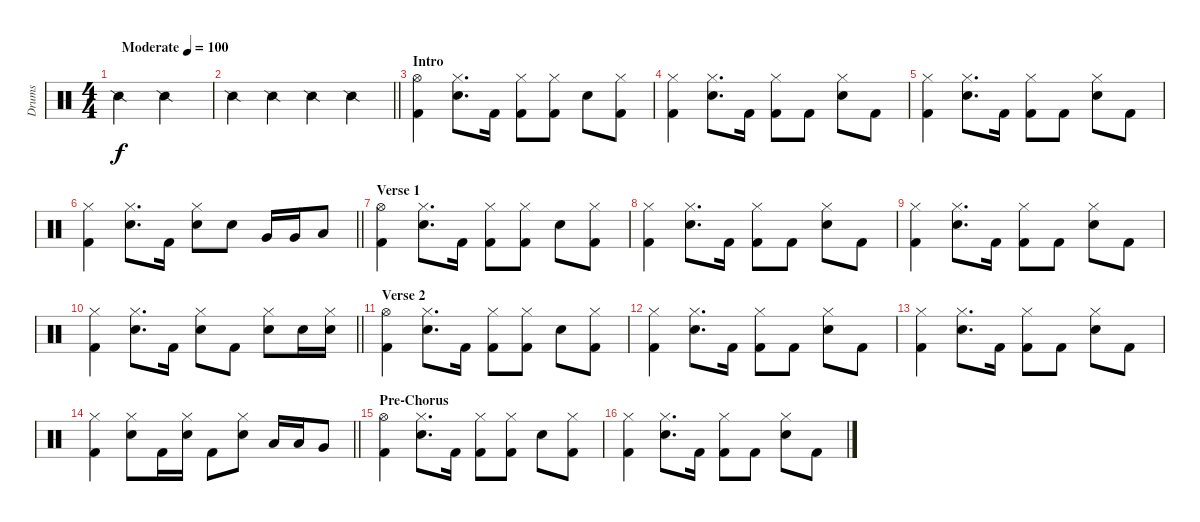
\track ("Drums" "Drums") {instrument percussion}
\staff {score}
\articulation defaults
\ts (4 4)
\tempo (100 "Moderate")
\clef neutral
\ks c "Snare (side stick) 2".2{dy f} "Snare (side stick) 2".2
|
\barLineRight lightlight "Snare (side stick) 2".4 "Snare (side stick) 2".4 "Snare (side stick) 2".4 "Snare (side stick) 2".4
|
\section ("" "Intro")
("Kick (hit) 2" "Hi-Hat (open)").4 ("Electric Snare (hit)" "Hi-Hat (closed)").8{d} "Kick (hit) 2".16 ("Kick (hit) 2" "Hi-Hat (closed)").8 ("Kick (hit) 2" "Hi-Hat (closed)").8 "Electric Snare (hit)".8 ("Kick (hit) 2" "Hi-Hat (closed)").8 |
("Kick (hit) 2" "Hi-Hat (closed)").4 ("Electric Snare (hit)" "Hi-Hat (closed)").8{d} "Kick (hit) 2".16 ("Kick (hit) 2" "Hi-Hat (closed)").8 "Kick (hit) 2".8 ("Electric Snare (hit)" "Hi-Hat (closed)").8 "Kick (hit) 2".8 |
("Kick (hit) 2" "Hi-Hat (closed)").4 ("Electric Snare (hit)" "Hi-Hat (closed)").8{d} "Kick (hit) 2".16 ("Kick (hit) 2" "Hi-Hat (closed)").8 "Kick (hit) 2".8 ("Electric Snare (hit)" "Hi-Hat (closed)").8 "Kick (hit) 2".8 |
\barLineRight lightlight
("Kick (hit) 2" "Hi-Hat (closed)").4 ("Electric Snare (hit)" "Hi-Hat (closed)").8{d} "Kick (hit) 2".16 ("Electric Snare (hit)" "Hi-Hat (closed)").8 "Electric Snare (hit)".8 "Very Low Tom (hit)".16 "Very Low Tom (hit)".16 "Low Floor Tom (hit)".8 |
\section ("" "Verse 1")
("Kick (hit) 2" "Hi-Hat (open)").4 ("Electric Snare (hit)" "Hi-Hat (closed)").8{d} "Kick (hit) 2".16 ("Kick (hit) 2" "Hi-Hat (closed)").8 ("Kick (hit) 2" "Hi-Hat (closed)").8 "Electric Snare (hit)".8 ("Kick (hit) 2" "Hi-Hat (closed)").8 |
("Kick (hit) 2" "Hi-Hat (closed)").4 ("Electric Snare (hit)" "Hi-Hat (closed)").8{d} "Kick (hit) 2".16 ("Kick (hit) 2" "Hi-Hat (closed)").8 "Kick (hit) 2".8 ("Electric Snare (hit)" "Hi-Hat (closed)").8 "Kick (hit) 2".8 |
("Kick (hit) 2" "Hi-Hat (closed)").4 ("Electric Snare (hit)" "Hi-Hat (closed)").8{d} "Kick (hit) 2".16 ("Kick (hit) 2" "Hi-Hat (closed)").8 "Kick (hit) 2".8 ("Electric Snare (hit)" "Hi-Hat (closed)").8 "Kick (hit) 2".8 |
\barLineRight lightlight
("Kick (hit) 2" "Hi-Hat (closed)").4 ("Electric Snare (hit)" "Hi-Hat (closed)").8{d} "Kick (hit) 2".16 ("Electric Snare (hit)" "Hi-Hat (closed)").8 "Kick (hit) 2".8 ("Electric Snare (hit)" "Hi-Hat (closed)").8 "Electric Snare (hit)".16 ("Electric Snare (hit)" "Hi-Hat (closed)").16 |
\section ("" "Verse 2")
("Kick (hit) 2" "Hi-Hat (open)").4 ("Electric Snare (hit)" "Hi-Hat (closed)").8{d} "Kick (hit) 2".16 ("Kick (hit) 2" "Hi-Hat (closed)").8 ("Kick (hit) 2" "Hi-Hat (closed)").8 "Electric Snare (hit)".8 ("Kick (hit) 2" "Hi-Hat (closed)").8 |
("Kick (hit) 2" "Hi-Hat (closed)").4 ("Electric Snare (hit)" "Hi-Hat (closed)").8{d} "Kick (hit) 2".16 ("Kick (hit) 2" "Hi-Hat (closed)").8 "Kick (hit) 2".8 ("Electric Snare (hit)" "Hi-Hat (closed)").8 "Kick (hit) 2".8 |
("Kick (hit) 2" "Hi-Hat (closed)").4 ("Electric Snare (hit)" "Hi-Hat (closed)").8{d} "Kick (hit) 2".16 ("Kick (hit) 2" "Hi-Hat (closed)").8 "Kick (hit) 2".8 ("Electric Snare (hit)" "Hi-Hat (closed)").8 "Kick (hit) 2".8 |
\barLineRight lightlight
("Kick (hit) 2" "Hi-Hat (closed)").4 ("Electric Snare (hit)" "Hi-Hat (closed)").8 "Kick (hit) 2".16 ("Electric Snare (hit)" "Hi-Hat (closed)").16 "Kick (hit) 2".8 ("Electric Snare (hit)" "Hi-Hat (closed)").8 "Low Tom (hit)".16 "Low Tom (hit)".16 "Very Low Tom (hit)".8 |
\section ("" "Pre-Chorus")
("Kick (hit) 2" "Hi-Hat (open)").4 ("Electric Snare (hit)" "Hi-Hat (closed)").8{d} "Kick (hit) 2".16 ("Kick (hit) 2" "Hi-Hat (closed)").8 ("Kick (hit) 2" "Hi-Hat (closed)").8 "Electric Snare (hit)".8 ("Kick (hit) 2" "Hi-Hat (closed)").8 |
("Kick (hit) 2" "Hi-Hat (closed)").4 ("Electric Snare (hit)" "Hi-Hat (closed)").8{d} "Kick (hit) 2".16 ("Kick (hit) 2" "Hi-Hat (closed)").8 "Kick (hit) 2".8 ("Electric Snare (hit)" "Hi-Hat (closed)").8 "Kick (hit) 2".8
